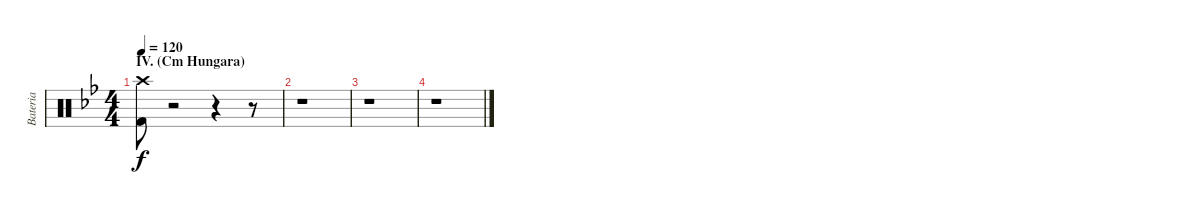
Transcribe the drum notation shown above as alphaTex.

\track ("Bateria" "Bateria") {instrument percussion}
\staff {score}
\articulation defaults
\ts (4 4)
\section ("" "IV. (Cm Hungara)")
\tempo 120
\clef neutral
\ks bb
("Crash high (hit)" "Kick (hit) 2").8{dy f} r.2 r.4 r.8 |
r.1 |
r.1 |
r.1
